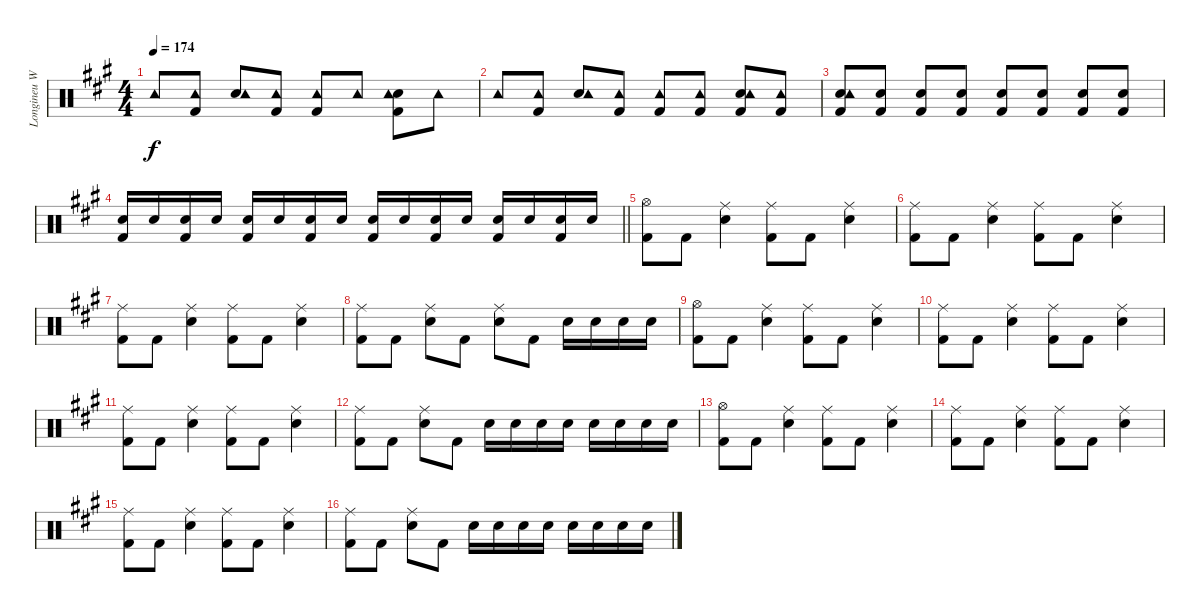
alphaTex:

\track ("Longineu W. Parsons III" "Longineu W") {instrument percussion}
\staff {score}
\articulation defaults
\ts (4 4)
\tempo 174
\clef neutral
\ks a "Tambourine (hit)".8{dy f}
("Tambourine (hit)" "Kick (hit) 2").8 ("Electric Snare (hit)" "Tambourine (hit)").8 ("Tambourine (hit)" "Kick (hit) 2").8 ("Tambourine (hit)" "Kick (hit) 2").8 "Tambourine (hit)".8 ("Electric Snare (hit)" "Tambourine (hit)" "Kick (hit) 2").8 "Tambourine (hit)".8 |
"Tambourine (hit)".8 ("Tambourine (hit)" "Kick (hit) 2").8 ("Electric Snare (hit)" "Tambourine (hit)").8 ("Tambourine (hit)" "Kick (hit) 2").8 ("Tambourine (hit)" "Kick (hit) 2").8 ("Tambourine (hit)" "Kick (hit) 2").8 ("Electric Snare (hit)" "Tambourine (hit)" "Kick (hit) 2").8 ("Tambourine (hit)" "Kick (hit) 2").8 |
("Electric Snare (hit)" "Tambourine (hit)" "Kick (hit) 2").8 ("Electric Snare (hit)" "Kick (hit) 2").8 ("Electric Snare (hit)" "Kick (hit) 2").8 ("Electric Snare (hit)" "Kick (hit) 2").8 ("Electric Snare (hit)" "Kick (hit) 2").8 ("Electric Snare (hit)" "Kick (hit) 2").8 ("Electric Snare (hit)" "Kick (hit) 2").8 ("Electric Snare (hit)" "Kick (hit) 2").8 |
\barLineRight lightlight
("Electric Snare (hit)" "Kick (hit) 2").16 "Electric Snare (hit)".16 ("Electric Snare (hit)" "Kick (hit) 2").16 "Electric Snare (hit)".16 ("Electric Snare (hit)" "Kick (hit) 2").16 "Electric Snare (hit)".16 ("Electric Snare (hit)" "Kick (hit) 2").16 "Electric Snare (hit)".16 ("Electric Snare (hit)" "Kick (hit) 2").16 "Electric Snare (hit)".16 ("Electric Snare (hit)" "Kick (hit) 2").16 "Electric Snare (hit)".16 ("Electric Snare (hit)" "Kick (hit) 2").16 "Electric Snare (hit)".16 ("Electric Snare (hit)" "Kick (hit) 2").16 "Electric Snare (hit)".16 |
("Hi-Hat (open)" "Kick (hit) 2").8 "Kick (hit) 2".8 ("Electric Snare (hit)" "Ride (middle)").4 ("Ride (middle)" "Kick (hit) 2").8 "Kick (hit) 2".8 ("Electric Snare (hit)" "Ride (middle)").4 |
("Ride (middle)" "Kick (hit) 2").8 "Kick (hit) 2".8 ("Electric Snare (hit)" "Ride (middle)").4 ("Ride (middle)" "Kick (hit) 2").8 "Kick (hit) 2".8 ("Electric Snare (hit)" "Ride (middle)").4 |
("Ride (middle)" "Kick (hit) 2").8 "Kick (hit) 2".8 ("Electric Snare (hit)" "Ride (middle)").4 ("Ride (middle)" "Kick (hit) 2").8 "Kick (hit) 2".8 ("Electric Snare (hit)" "Ride (middle)").4 |
("Ride (middle)" "Kick (hit) 2").8 "Kick (hit) 2".8 ("Electric Snare (hit)" "Ride (middle)").8 "Kick (hit) 2".8 ("Electric Snare (hit)" "Ride (middle)").8 "Kick (hit) 2".8 "Electric Snare (hit)".16 "Electric Snare (hit)".16 "Electric Snare (hit)".16 "Electric Snare (hit)".16 |
("Hi-Hat (open)" "Kick (hit) 2").8 "Kick (hit) 2".8 ("Electric Snare (hit)" "Ride (middle)").4 ("Ride (middle)" "Kick (hit) 2").8 "Kick (hit) 2".8 ("Electric Snare (hit)" "Ride (middle)").4 |
("Ride (middle)" "Kick (hit) 2").8 "Kick (hit) 2".8 ("Electric Snare (hit)" "Ride (middle)").4 ("Ride (middle)" "Kick (hit) 2").8 "Kick (hit) 2".8 ("Electric Snare (hit)" "Ride (middle)").4 |
("Ride (middle)" "Kick (hit) 2").8 "Kick (hit) 2".8 ("Electric Snare (hit)" "Ride (middle)").4 ("Ride (middle)" "Kick (hit) 2").8 "Kick (hit) 2".8 ("Electric Snare (hit)" "Ride (middle)").4 |
("Ride (middle)" "Kick (hit) 2").8 "Kick (hit) 2".8 ("Electric Snare (hit)" "Ride (middle)").8 "Kick (hit) 2".8 "Electric Snare (hit)".16 "Electric Snare (hit)".16 "Electric Snare (hit)".16 "Electric Snare (hit)".16 "Electric Snare (hit)".16 "Electric Snare (hit)".16 "Electric Snare (hit)".16 "Electric Snare (hit)".16 |
("Hi-Hat (open)" "Kick (hit) 2").8 "Kick (hit) 2".8 ("Electric Snare (hit)" "Ride (middle)").4 ("Ride (middle)" "Kick (hit) 2").8 "Kick (hit) 2".8 ("Electric Snare (hit)" "Ride (middle)").4 |
("Ride (middle)" "Kick (hit) 2").8 "Kick (hit) 2".8 ("Electric Snare (hit)" "Ride (middle)").4 ("Ride (middle)" "Kick (hit) 2").8 "Kick (hit) 2".8 ("Electric Snare (hit)" "Ride (middle)").4 |
("Ride (middle)" "Kick (hit) 2").8 "Kick (hit) 2".8 ("Electric Snare (hit)" "Ride (middle)").4 ("Ride (middle)" "Kick (hit) 2").8 "Kick (hit) 2".8 ("Electric Snare (hit)" "Ride (middle)").4 |
("Ride (middle)" "Kick (hit) 2").8 "Kick (hit) 2".8 ("Electric Snare (hit)" "Ride (middle)").8 "Kick (hit) 2".8 "Electric Snare (hit)".16 "Electric Snare (hit)".16 "Electric Snare (hit)".16 "Electric Snare (hit)".16 "Electric Snare (hit)".16 "Electric Snare (hit)".16 "Electric Snare (hit)".16 "Electric Snare (hit)".16
